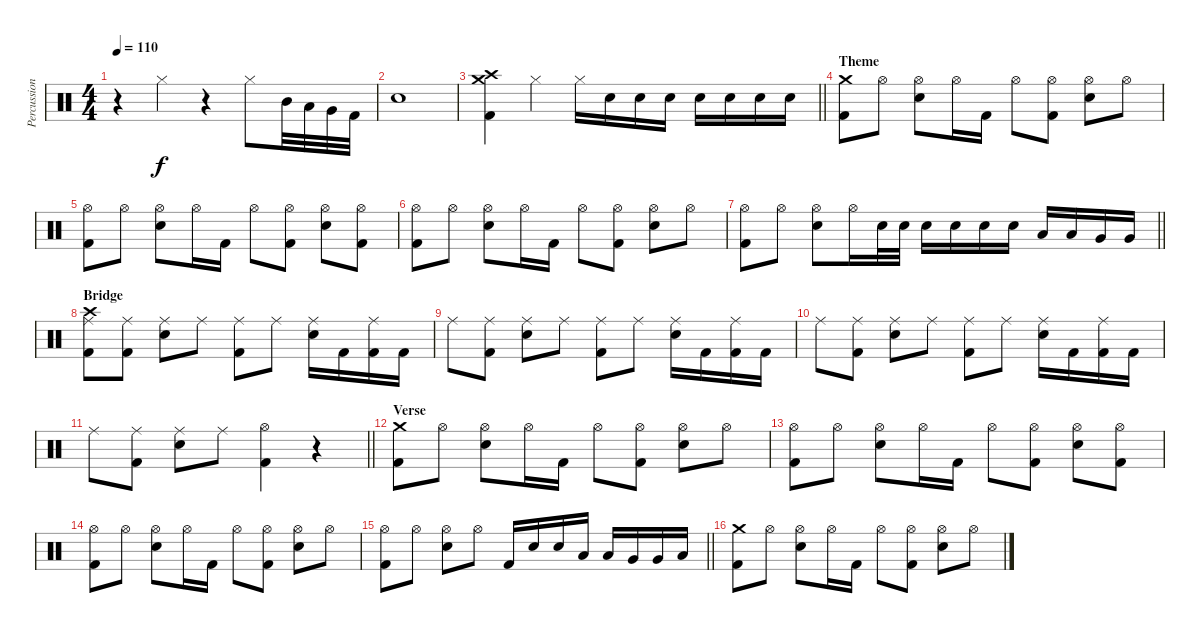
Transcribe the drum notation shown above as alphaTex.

\track ("Percussion" "Percussion") {instrument percussion}
\staff {score}
\articulation defaults
\ts (4 4)
\tempo 110
\clef neutral
\ks c
r.4{dy f} "Hi-Hat (closed)".4 r.4 "Hi-Hat (closed)".8 "Mid Tom (hit)".32 "Low Tom (hit)".32 "Very Low Tom (hit)".32 "Kick (hit) 2".32 |
"Snare (hit) 2".1 |
\barLineRight lightlight
("Crash medium (hit)" "Crash high (hit)" "Kick (hit) 2").4 "Hi-Hat (closed)".4 "Hi-Hat (closed)".16 "Snare (hit) 2".16 "Snare (hit) 2".16 "Snare (hit) 2".16 "Snare (hit) 2".16 "Snare (hit) 2".16 "Snare (hit) 2".16 "Snare (hit) 2".16 |
\section ("" "Theme")
("Crash medium (hit)" "Kick (hit) 2").8 "Hi-Hat (open)".8 ("Hi-Hat (open)" "Snare (hit) 2").8 "Hi-Hat (open)".16 "Kick (hit) 2".16 "Hi-Hat (open)".8 ("Hi-Hat (open)" "Kick (hit) 2").8 ("Hi-Hat (open)" "Snare (hit) 2").8 "Hi-Hat (open)".8 |
("Hi-Hat (open)" "Kick (hit) 2").8 "Hi-Hat (open)".8 ("Hi-Hat (open)" "Snare (hit) 2").8 "Hi-Hat (open)".16 "Kick (hit) 2".16 "Hi-Hat (open)".8 ("Hi-Hat (open)" "Kick (hit) 2").8 ("Hi-Hat (open)" "Snare (hit) 2").8 ("Hi-Hat (open)" "Kick (hit) 2").8 |
("Hi-Hat (open)" "Kick (hit) 2").8 "Hi-Hat (open)".8 ("Hi-Hat (open)" "Snare (hit) 2").8 "Hi-Hat (open)".16 "Kick (hit) 2".16 "Hi-Hat (open)".8 ("Hi-Hat (open)" "Kick (hit) 2").8 ("Hi-Hat (open)" "Snare (hit) 2").8 "Hi-Hat (open)".8 |
\barLineRight lightlight
("Hi-Hat (open)" "Kick (hit) 2").8 "Hi-Hat (open)".8 ("Hi-Hat (open)" "Snare (hit) 2").8 "Hi-Hat (open)".16 "Snare (hit) 2".32 "Snare (hit) 2".32 "Snare (hit) 2".16 "Snare (hit) 2".16 "Snare (hit) 2".16 "Snare (hit) 2".16 "Low Tom (hit)".16 "Low Tom (hit)".16 "Very Low Tom (hit)".16 "Very Low Tom (hit)".16 |
\section ("" "Bridge")
("Crash high (hit)" "Ride (middle)" "Kick (hit) 2").8 ("Ride (middle)" "Kick (hit) 2").8 ("Ride (middle)" "Snare (hit) 2").8 "Ride (middle)".8 ("Ride (middle)" "Kick (hit) 2").8 "Ride (middle)".8 ("Ride (middle)" "Snare (hit) 2").16 "Kick (hit) 2".16 ("Ride (middle)" "Kick (hit) 2").16 "Kick (hit) 2".16 |
"Ride (middle)".8 ("Ride (middle)" "Kick (hit) 2").8 ("Ride (middle)" "Snare (hit) 2").8 "Ride (middle)".8 ("Ride (middle)" "Kick (hit) 2").8 "Ride (middle)".8 ("Ride (middle)" "Snare (hit) 2").16 "Kick (hit) 2".16 ("Ride (middle)" "Kick (hit) 2").16 "Kick (hit) 2".16 |
"Ride (middle)".8 ("Ride (middle)" "Kick (hit) 2").8 ("Ride (middle)" "Snare (hit) 2").8 "Ride (middle)".8 ("Ride (middle)" "Kick (hit) 2").8 "Ride (middle)".8 ("Ride (middle)" "Snare (hit) 2").16 "Kick (hit) 2".16 ("Ride (middle)" "Kick (hit) 2").16 "Kick (hit) 2".16 |
\barLineRight lightlight "Ride (middle)".8
("Ride (middle)" "Kick (hit) 2").8 ("Ride (middle)" "Snare (hit) 2").8 "Ride (middle)".8 ("Hi-Hat (open)" "Kick (hit) 2").4 r.4 |
\section ("" "Verse")
("Crash medium (hit)" "Kick (hit) 2").8 "Hi-Hat (open)".8 ("Hi-Hat (open)" "Snare (hit) 2").8 "Hi-Hat (open)".16 "Kick (hit) 2".16 "Hi-Hat (open)".8 ("Hi-Hat (open)" "Kick (hit) 2").8 ("Hi-Hat (open)" "Snare (hit) 2").8 "Hi-Hat (open)".8 |
("Hi-Hat (open)" "Kick (hit) 2").8 "Hi-Hat (open)".8 ("Hi-Hat (open)" "Snare (hit) 2").8 "Hi-Hat (open)".16 "Kick (hit) 2".16 "Hi-Hat (open)".8 ("Hi-Hat (open)" "Kick (hit) 2").8 ("Hi-Hat (open)" "Snare (hit) 2").8 ("Hi-Hat (open)" "Kick (hit) 2").8 |
("Hi-Hat (open)" "Kick (hit) 2").8 "Hi-Hat (open)".8 ("Hi-Hat (open)" "Snare (hit) 2").8 "Hi-Hat (open)".16 "Kick (hit) 2".16 "Hi-Hat (open)".8 ("Hi-Hat (open)" "Kick (hit) 2").8 ("Hi-Hat (open)" "Snare (hit) 2").8 "Hi-Hat (open)".8 |
\barLineRight lightlight
("Hi-Hat (open)" "Kick (hit) 2").8 "Hi-Hat (open)".8 ("Hi-Hat (open)" "Snare (hit) 2").8 "Hi-Hat (open)".8 "Kick (hit) 2".16 "Snare (hit) 2".16 "Snare (hit) 2".16 "Low Tom (hit)".16 "Low Tom (hit)".16 "Very Low Tom (hit)".16 "Very Low Tom (hit)".16 "Low Floor Tom (hit)".16 |
("Crash medium (hit)" "Kick (hit) 2").8 "Hi-Hat (open)".8 ("Hi-Hat (open)" "Snare (hit) 2").8 "Hi-Hat (open)".16 "Kick (hit) 2".16 "Hi-Hat (open)".8 ("Hi-Hat (open)" "Kick (hit) 2").8 ("Hi-Hat (open)" "Snare (hit) 2").8 "Hi-Hat (open)".8
